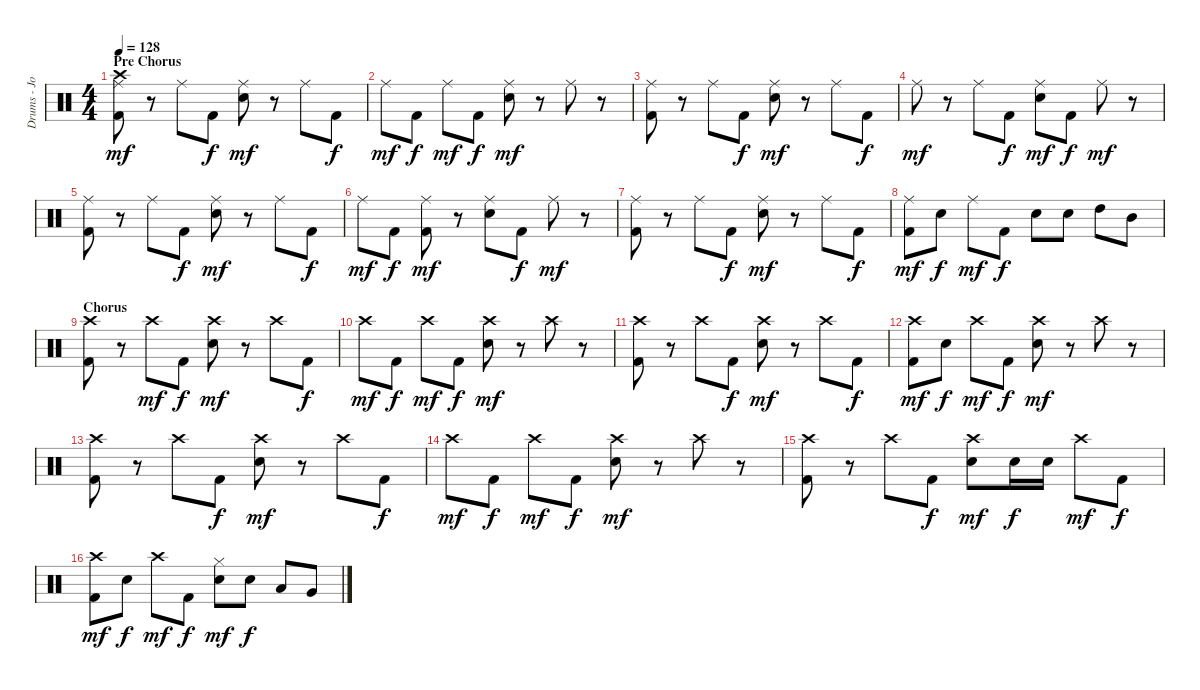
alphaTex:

\track ("Drums - John Humphrey" "Drums - Jo") {instrument percussion}
\staff {score}
\articulation defaults
\ts (4 4)
\section ("" "Pre Chorus")
\tempo 128
\clef neutral
\ks c
("Crash high (hit)" "Ride (middle)" "Kick (hit) 2").8{dy mf} r.8 "Ride (middle)".8 "Kick (hit) 2".8{dy f} ("Ride (middle)" "Electric Snare (hit)").8{dy mf} r.8 "Ride (middle)".8 "Kick (hit) 2".8{dy f} |
"Ride (middle)".8{dy mf} "Kick (hit) 2".8{dy f} "Ride (middle)".8{dy mf} "Kick (hit) 2".8{dy f} ("Ride (middle)" "Electric Snare (hit)").8{dy mf} r.8 "Ride (middle)".8 r.8 |
("Ride (middle)" "Kick (hit) 2").8 r.8 "Ride (middle)".8 "Kick (hit) 2".8{dy f} ("Ride (middle)" "Electric Snare (hit)").8{dy mf} r.8 "Ride (middle)".8 "Kick (hit) 2".8{dy f} |
"Ride (middle)".8{dy mf} r.8 "Ride (middle)".8 "Kick (hit) 2".8{dy f} ("Ride (middle)" "Electric Snare (hit)").8{dy mf} "Kick (hit) 2".8{dy f} "Ride (middle)".8{dy mf} r.8 |
("Ride (middle)" "Kick (hit) 2").8 r.8 "Ride (middle)".8 "Kick (hit) 2".8{dy f} ("Ride (middle)" "Electric Snare (hit)").8{dy mf} r.8 "Ride (middle)".8 "Kick (hit) 2".8{dy f} |
"Ride (middle)".8{dy mf} "Kick (hit) 2".8{dy f} ("Ride (middle)" "Kick (hit) 2").8{dy mf} r.8 ("Ride (middle)" "Electric Snare (hit)").8 "Kick (hit) 2".8{dy f} "Ride (middle)".8{dy mf} r.8 |
("Ride (middle)" "Kick (hit) 2").8 r.8 "Ride (middle)".8 "Kick (hit) 2".8{dy f} ("Ride (middle)" "Electric Snare (hit)").8{dy mf} r.8 "Ride (middle)".8 "Kick (hit) 2".8{dy f} |
("Ride (middle)" "Kick (hit) 2").8{dy mf} "Electric Snare (hit)".8{dy f} "Ride (middle)".8{dy mf} "Kick (hit) 2".8{dy f} "Electric Snare (hit)".8 "Electric Snare (hit)".8 "High Tom (hit)".8 "Mid Tom (hit)".8 |
\section ("" "Chorus")
("Crash high (hit)" "Kick (hit) 2").8 r.8 "Crash high (hit)".8{dy mf} "Kick (hit) 2".8{dy f} ("Crash high (hit)" "Electric Snare (hit)").8{dy mf} r.8 "Crash high (hit)".8 "Kick (hit) 2".8{dy f} |
"Crash high (hit)".8{dy mf} "Kick (hit) 2".8{dy f} "Crash high (hit)".8{dy mf} "Kick (hit) 2".8{dy f} ("Crash high (hit)" "Electric Snare (hit)").8{dy mf} r.8 "Crash high (hit)".8 r.8 |
("Crash high (hit)" "Kick (hit) 2").8 r.8 "Crash high (hit)".8 "Kick (hit) 2".8{dy f} ("Crash high (hit)" "Electric Snare (hit)").8{dy mf} r.8 "Crash high (hit)".8 "Kick (hit) 2".8{dy f} |
("Crash high (hit)" "Kick (hit) 2").8{dy mf} "Electric Snare (hit)".8{dy f} "Crash high (hit)".8{dy mf} "Kick (hit) 2".8{dy f} ("Crash high (hit)" "Electric Snare (hit)").8{dy mf} r.8 "Crash high (hit)".8 r.8 |
("Crash high (hit)" "Kick (hit) 2").8 r.8 "Crash high (hit)".8 "Kick (hit) 2".8{dy f} ("Crash high (hit)" "Electric Snare (hit)").8{dy mf} r.8 "Crash high (hit)".8 "Kick (hit) 2".8{dy f} |
"Crash high (hit)".8{dy mf} "Kick (hit) 2".8{dy f} "Crash high (hit)".8{dy mf} "Kick (hit) 2".8{dy f} ("Crash high (hit)" "Electric Snare (hit)").8{dy mf} r.8 "Crash high (hit)".8 r.8 |
("Crash high (hit)" "Kick (hit) 2").8 r.8 "Crash high (hit)".8 "Kick (hit) 2".8{dy f} ("Crash high (hit)" "Electric Snare (hit)").8{dy mf} "Electric Snare (hit)".16{dy f} "Electric Snare (hit)".16 "Crash high (hit)".8{dy mf} "Kick (hit) 2".8{dy f} |
("Crash high (hit)" "Kick (hit) 2").8{dy mf} "Electric Snare (hit)".8{dy f} "Crash high (hit)".8{dy mf} "Kick (hit) 2".8{dy f} ("Hi-Hat (closed)" "Electric Snare (hit)").8{dy mf} "Electric Snare (hit)".8{dy f} "Low Tom (hit)".8 "Very Low Tom (hit)".8
